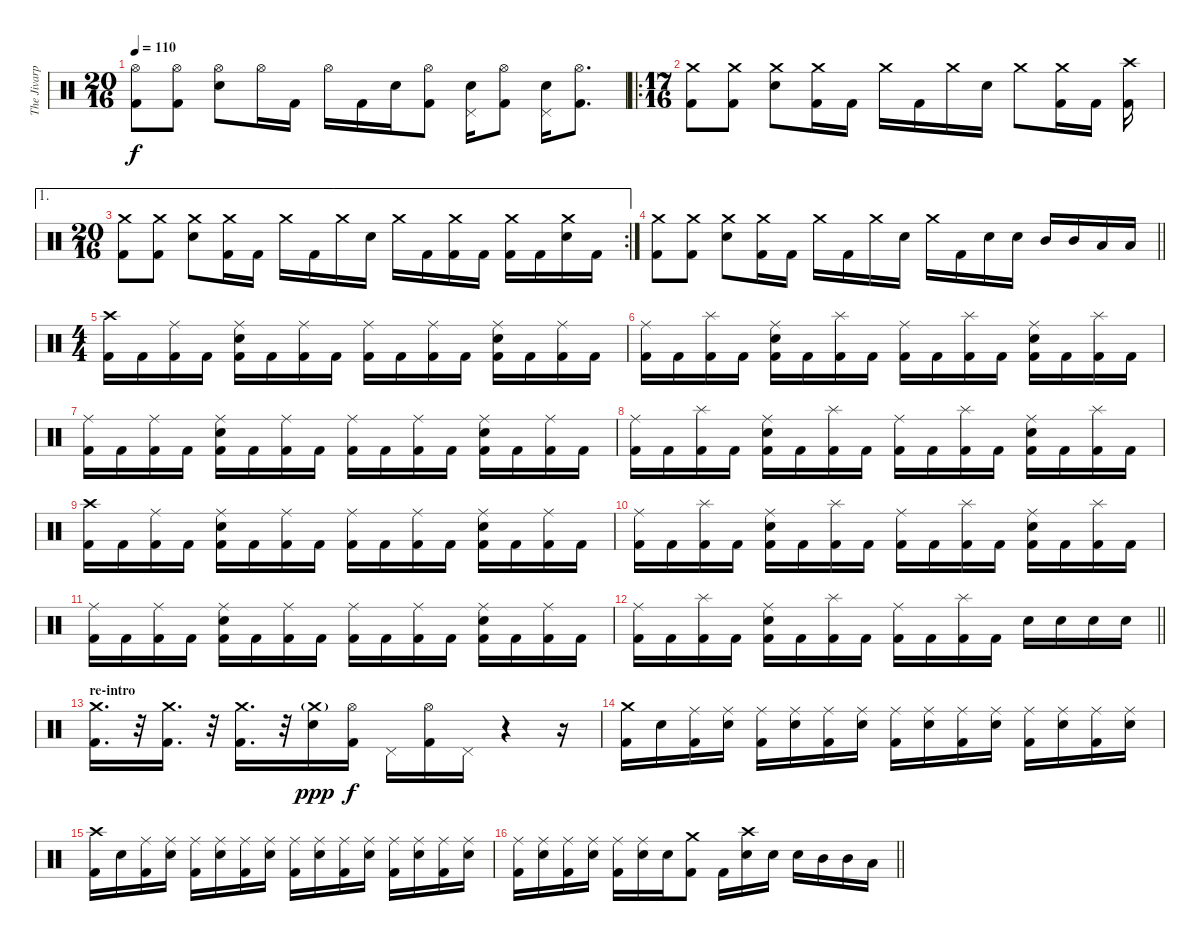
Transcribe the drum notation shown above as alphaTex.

\track ("The Jivarp" "The Jivarp") {instrument percussion}
\staff {score}
\articulation defaults
\ts (20 16)
\tempo 110
\clef neutral
\ks c
("Hi-Hat (open)" "Kick (hit) 2").8{dy f} ("Hi-Hat (open)" "Kick (hit) 2").8 ("Hi-Hat (open)" "Electric Snare (hit)").8 "Hi-Hat (open)".16 "Kick (hit) 2".16 "Hi-Hat (open)".16 "Kick (hit) 2".16 "Electric Snare (hit)".16 ("Hi-Hat (open)" "Kick (hit) 2").8 ("Pedal Hi-Hat (hit)" "Electric Snare (hit)").16 ("Hi-Hat (open)" "Kick (hit) 2").8 ("Pedal Hi-Hat (hit)" "Electric Snare (hit)").16 ("Hi-Hat (open)" "Kick (hit) 2").8{d} |
\ro
\ts (17 16)
("Crash medium (hit)" "Kick (hit) 2").8 ("Crash medium (hit)" "Kick (hit) 2").8 ("Crash medium (hit)" "Electric Snare (hit)").8 ("Crash medium (hit)" "Kick (hit) 2").16 "Kick (hit) 2".16 "Crash medium (hit)".16 "Kick (hit) 2".16 "Crash medium (hit)".16 "Electric Snare (hit)".16 "Crash medium (hit)".8 ("Crash medium (hit)" "Kick (hit) 2").16 "Kick (hit) 2".16 ("Crash high (hit)" "Kick (hit) 2").16 |
\ae 1
\rc 2
\ts (20 16)
("Crash medium (hit)" "Kick (hit) 2").8 ("Crash medium (hit)" "Kick (hit) 2").8 ("Crash medium (hit)" "Electric Snare (hit)").8 ("Crash medium (hit)" "Kick (hit) 2").16 "Kick (hit) 2".16 "Crash medium (hit)".16 "Kick (hit) 2".16 "Crash medium (hit)".16 "Electric Snare (hit)".16 "Crash medium (hit)".16 "Kick (hit) 2".16 ("Crash medium (hit)" "Kick (hit) 2").16 "Kick (hit) 2".16 ("Crash medium (hit)" "Kick (hit) 2").16 "Kick (hit) 2".16 ("Crash medium (hit)" "Electric Snare (hit)").16 "Kick (hit) 2".16 |
\barLineRight lightlight
("Crash medium (hit)" "Kick (hit) 2").8 ("Crash medium (hit)" "Kick (hit) 2").8 ("Crash medium (hit)" "Electric Snare (hit)").8 ("Crash medium (hit)" "Kick (hit) 2").16 "Kick (hit) 2".16 "Crash medium (hit)".16 "Kick (hit) 2".16 "Crash medium (hit)".16 "Electric Snare (hit)".16 "Crash medium (hit)".16 "Kick (hit) 2".16 "Electric Snare (hit)".16 "Electric Snare (hit)".16 "Mid Tom (hit)".16 "Mid Tom (hit)".16 "Low Tom (hit)".16 "Low Tom (hit)".16 |
\ts (4 4)
\section ("" "")
("Crash high (hit)" "Kick (hit) 2").16 "Kick (hit) 2".16 ("Ride (middle)" "Kick (hit) 2").16 "Kick (hit) 2".16 ("Ride (middle)" "Electric Snare (hit)" "Kick (hit) 2").16 "Kick (hit) 2".16 ("Ride (middle)" "Kick (hit) 2").16 "Kick (hit) 2".16 ("Ride (middle)" "Kick (hit) 2").16 "Kick (hit) 2".16 ("Ride (middle)" "Kick (hit) 2").16 "Kick (hit) 2".16 ("Ride (middle)" "Electric Snare (hit)" "Kick (hit) 2").16 "Kick (hit) 2".16 ("Ride (middle)" "Kick (hit) 2").16 "Kick (hit) 2".16 |
("Ride (middle)" "Kick (hit) 2").16 "Kick (hit) 2".16 ("Splash (hit)" "Kick (hit) 2").16 "Kick (hit) 2".16 ("Ride (middle)" "Electric Snare (hit)" "Kick (hit) 2").16 "Kick (hit) 2".16 ("Splash (hit)" "Kick (hit) 2").16 "Kick (hit) 2".16 ("Ride (middle)" "Kick (hit) 2").16 "Kick (hit) 2".16 ("Splash (hit)" "Kick (hit) 2").16 "Kick (hit) 2".16 ("Ride (middle)" "Electric Snare (hit)" "Kick (hit) 2").16 "Kick (hit) 2".16 ("Splash (hit)" "Kick (hit) 2").16 "Kick (hit) 2".16 |
("Ride (middle)" "Kick (hit) 2").16 "Kick (hit) 2".16 ("Ride (middle)" "Kick (hit) 2").16 "Kick (hit) 2".16 ("Ride (middle)" "Electric Snare (hit)" "Kick (hit) 2").16 "Kick (hit) 2".16 ("Ride (middle)" "Kick (hit) 2").16 "Kick (hit) 2".16 ("Ride (middle)" "Kick (hit) 2").16 "Kick (hit) 2".16 ("Ride (middle)" "Kick (hit) 2").16 "Kick (hit) 2".16 ("Ride (middle)" "Electric Snare (hit)" "Kick (hit) 2").16 "Kick (hit) 2".16 ("Ride (middle)" "Kick (hit) 2").16 "Kick (hit) 2".16 |
("Ride (middle)" "Kick (hit) 2").16 "Kick (hit) 2".16 ("Splash (hit)" "Kick (hit) 2").16 "Kick (hit) 2".16 ("Ride (middle)" "Electric Snare (hit)" "Kick (hit) 2").16 "Kick (hit) 2".16 ("Splash (hit)" "Kick (hit) 2").16 "Kick (hit) 2".16 ("Ride (middle)" "Kick (hit) 2").16 "Kick (hit) 2".16 ("Splash (hit)" "Kick (hit) 2").16 "Kick (hit) 2".16 ("Ride (middle)" "Electric Snare (hit)" "Kick (hit) 2").16 "Kick (hit) 2".16 ("Splash (hit)" "Kick (hit) 2").16 "Kick (hit) 2".16 |
("Crash high (hit)" "Kick (hit) 2").16 "Kick (hit) 2".16 ("Ride (middle)" "Kick (hit) 2").16 "Kick (hit) 2".16 ("Ride (middle)" "Electric Snare (hit)" "Kick (hit) 2").16 "Kick (hit) 2".16 ("Ride (middle)" "Kick (hit) 2").16 "Kick (hit) 2".16 ("Ride (middle)" "Kick (hit) 2").16 "Kick (hit) 2".16 ("Ride (middle)" "Kick (hit) 2").16 "Kick (hit) 2".16 ("Ride (middle)" "Electric Snare (hit)" "Kick (hit) 2").16 "Kick (hit) 2".16 ("Ride (middle)" "Kick (hit) 2").16 "Kick (hit) 2".16 |
("Ride (middle)" "Kick (hit) 2").16 "Kick (hit) 2".16 ("Splash (hit)" "Kick (hit) 2").16 "Kick (hit) 2".16 ("Ride (middle)" "Electric Snare (hit)" "Kick (hit) 2").16 "Kick (hit) 2".16 ("Splash (hit)" "Kick (hit) 2").16 "Kick (hit) 2".16 ("Ride (middle)" "Kick (hit) 2").16 "Kick (hit) 2".16 ("Splash (hit)" "Kick (hit) 2").16 "Kick (hit) 2".16 ("Ride (middle)" "Electric Snare (hit)" "Kick (hit) 2").16 "Kick (hit) 2".16 ("Splash (hit)" "Kick (hit) 2").16 "Kick (hit) 2".16 |
("Ride (middle)" "Kick (hit) 2").16 "Kick (hit) 2".16 ("Ride (middle)" "Kick (hit) 2").16 "Kick (hit) 2".16 ("Ride (middle)" "Electric Snare (hit)" "Kick (hit) 2").16 "Kick (hit) 2".16 ("Ride (middle)" "Kick (hit) 2").16 "Kick (hit) 2".16 ("Ride (middle)" "Kick (hit) 2").16 "Kick (hit) 2".16 ("Ride (middle)" "Kick (hit) 2").16 "Kick (hit) 2".16 ("Ride (middle)" "Electric Snare (hit)" "Kick (hit) 2").16 "Kick (hit) 2".16 ("Ride (middle)" "Kick (hit) 2").16 "Kick (hit) 2".16 |
\barLineRight lightlight
("Ride (middle)" "Kick (hit) 2").16 "Kick (hit) 2".16 ("Splash (hit)" "Kick (hit) 2").16 "Kick (hit) 2".16 ("Ride (middle)" "Electric Snare (hit)" "Kick (hit) 2").16 "Kick (hit) 2".16 ("Splash (hit)" "Kick (hit) 2").16 "Kick (hit) 2".16 ("Ride (middle)" "Kick (hit) 2").16 "Kick (hit) 2".16 ("Splash (hit)" "Kick (hit) 2").16 "Kick (hit) 2".16 "Electric Snare (hit)".16 "Electric Snare (hit)".16 "Electric Snare (hit)".16 "Electric Snare (hit)".16 |
\section ("" "re-intro")
("Crash medium (hit)" "Kick (hit) 2").16{d} r.32{volume 0} ("Crash medium (hit)" "Kick (hit) 2").16{d volume 16} r.32{volume 0} ("Crash medium (hit)" "Kick (hit) 2").16{d volume 16} r.32{volume 0} ("Crash medium (hit)"{g} "Electric Snare (hit)").16{dy ppp volume 16} ("Hi-Hat (open)" "Kick (hit) 2").16{dy f} "Pedal Hi-Hat (hit)".16 ("Hi-Hat (open)" "Kick (hit) 2").16 "Pedal Hi-Hat (hit)".16 r.4 r.16 |
("Crash medium (hit)" "Kick (hit) 2").16 "Electric Snare (hit)".16 ("Ride (middle)" "Kick (hit) 2").16 ("Ride (middle)" "Electric Snare (hit)").16 ("Ride (middle)" "Kick (hit) 2").16 ("Ride (middle)" "Electric Snare (hit)").16 ("Ride (middle)" "Kick (hit) 2").16 ("Ride (middle)" "Electric Snare (hit)").16 ("Ride (middle)" "Kick (hit) 2").16 ("Ride (middle)" "Electric Snare (hit)").16 ("Ride (middle)" "Kick (hit) 2").16 ("Ride (middle)" "Electric Snare (hit)").16 ("Ride (middle)" "Kick (hit) 2").16 ("Ride (middle)" "Electric Snare (hit)").16 ("Ride (middle)" "Kick (hit) 2").16 ("Ride (middle)" "Electric Snare (hit)").16 |
("Crash high (hit)" "Kick (hit) 2").16 "Electric Snare (hit)".16 ("Ride (middle)" "Kick (hit) 2").16 ("Ride (middle)" "Electric Snare (hit)").16 ("Ride (middle)" "Kick (hit) 2").16 ("Ride (middle)" "Electric Snare (hit)").16 ("Ride (middle)" "Kick (hit) 2").16 ("Ride (middle)" "Electric Snare (hit)").16 ("Ride (middle)" "Kick (hit) 2").16 ("Ride (middle)" "Electric Snare (hit)").16 ("Ride (middle)" "Kick (hit) 2").16 ("Ride (middle)" "Electric Snare (hit)").16 ("Ride (middle)" "Kick (hit) 2").16 ("Ride (middle)" "Electric Snare (hit)").16 ("Ride (middle)" "Kick (hit) 2").16 ("Ride (middle)" "Electric Snare (hit)").16 |
\barLineRight lightlight
("Ride (middle)" "Kick (hit) 2").16 ("Ride (middle)" "Electric Snare (hit)").16 ("Ride (middle)" "Kick (hit) 2").16 ("Ride (middle)" "Electric Snare (hit)").16 ("Ride (middle)" "Kick (hit) 2").16 ("Ride (middle)" "Electric Snare (hit)").16 "Electric Snare (hit)".16 ("Crash medium (hit)" "Kick (hit) 2").8 "Kick (hit) 2".16 ("Crash high (hit)" "Electric Snare (hit)").16 "Electric Snare (hit)".16 "Electric Snare (hit)".16 "Mid Tom (hit)".16 "Mid Tom (hit)".16 "Low Tom (hit)".16
